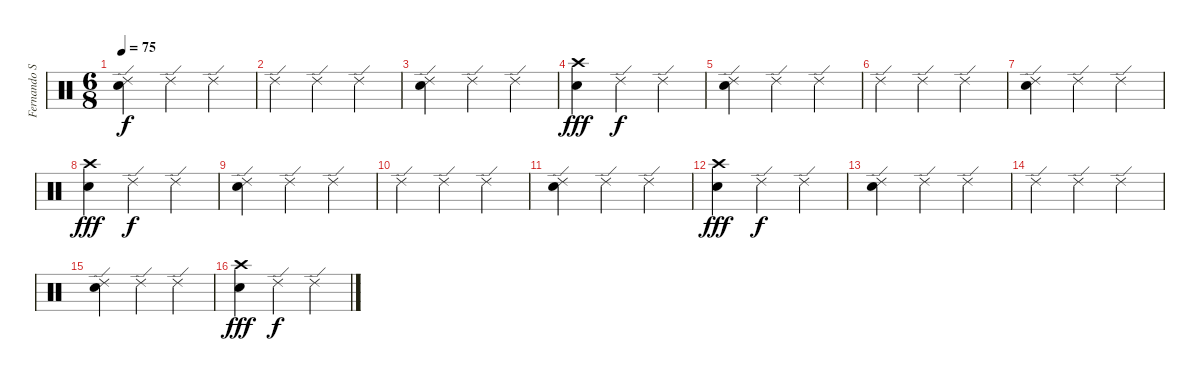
\track ("Fernando Scarcella " "Fernando S") {instrument percussion}
\staff {score}
\articulation defaults
\ts (6 8)
\tempo 75
\clef neutral
\ks c
("Electric Snare (hit)" "Ride (edge) 2").4{dy f} "Ride (edge) 2".4 "Ride (edge) 2".4 |
"Ride (edge) 2".4 "Ride (edge) 2".4 "Ride (edge) 2".4 |
("Electric Snare (hit)" "Ride (edge) 2").4 "Ride (edge) 2".4 "Ride (edge) 2".4 |
("Snare (hit) 2" "Crash high (hit)").4{dy fff} "Ride (edge) 2".4{dy f} "Ride (edge) 2".4 |
("Electric Snare (hit)" "Ride (edge) 2").4 "Ride (edge) 2".4 "Ride (edge) 2".4 |
"Ride (edge) 2".4 "Ride (edge) 2".4 "Ride (edge) 2".4 |
("Electric Snare (hit)" "Ride (edge) 2").4 "Ride (edge) 2".4 "Ride (edge) 2".4 |
("Snare (hit) 2" "Crash high (hit)").4{dy fff} "Ride (edge) 2".4{dy f} "Ride (edge) 2".4 |
("Electric Snare (hit)" "Ride (edge) 2").4 "Ride (edge) 2".4 "Ride (edge) 2".4 |
"Ride (edge) 2".4 "Ride (edge) 2".4 "Ride (edge) 2".4 |
("Electric Snare (hit)" "Ride (edge) 2").4 "Ride (edge) 2".4 "Ride (edge) 2".4 |
("Snare (hit) 2" "Crash high (hit)").4{dy fff} "Ride (edge) 2".4{dy f} "Ride (edge) 2".4 |
("Electric Snare (hit)" "Ride (edge) 2").4 "Ride (edge) 2".4 "Ride (edge) 2".4 |
"Ride (edge) 2".4 "Ride (edge) 2".4 "Ride (edge) 2".4 |
("Electric Snare (hit)" "Ride (edge) 2").4 "Ride (edge) 2".4 "Ride (edge) 2".4 |
("Snare (hit) 2" "Crash high (hit)").4{dy fff} "Ride (edge) 2".4{dy f} "Ride (edge) 2".4
